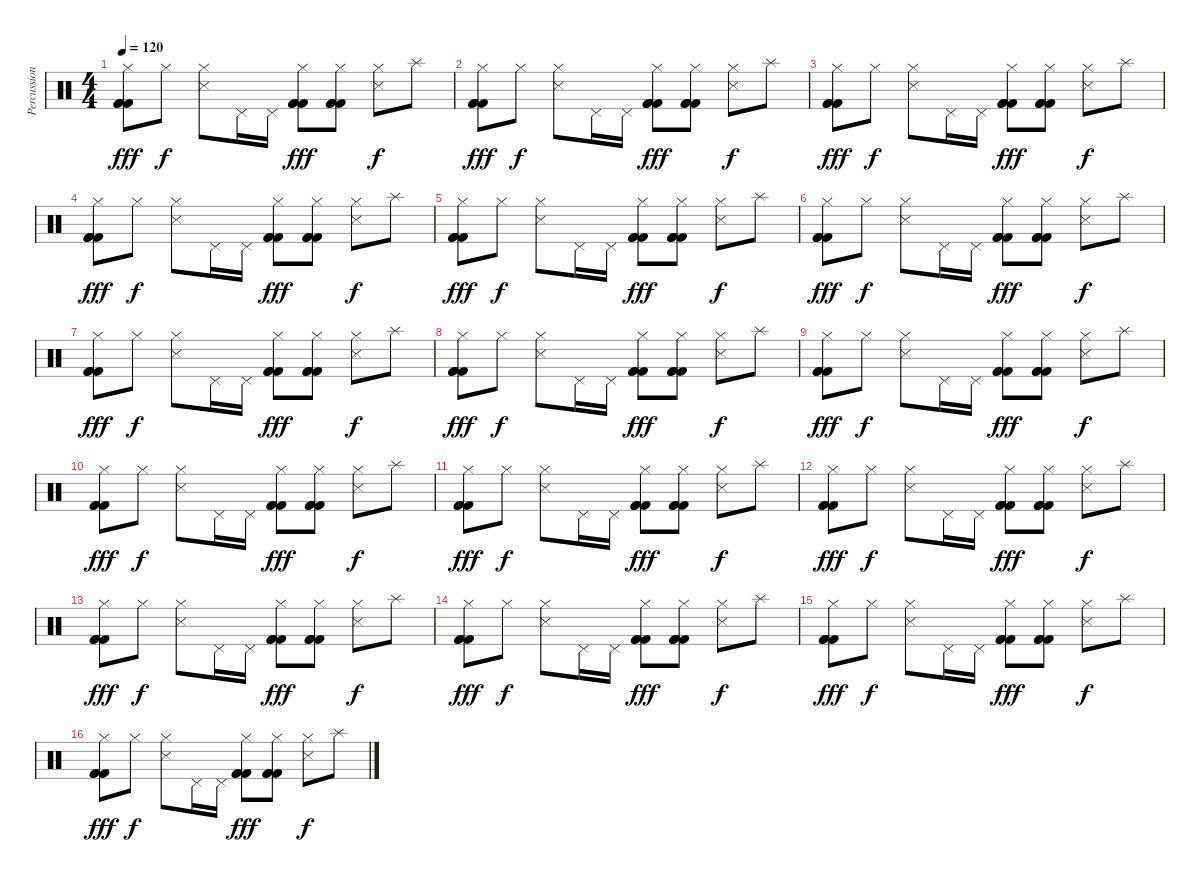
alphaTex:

\track ("Percussion" "Percussion") {instrument percussion}
\staff {score}
\articulation defaults
\ts (4 4)
\tempo 120
\clef neutral
\ks c
("Hi-Hat (closed)" "Kick (hit) 2" "Kick (hit) 2" "Kick (hit) 2").8{dy fff} "Hi-Hat (closed)".8{dy f} ("Hi-Hat (closed)" "Snare (side stick) 3").8 "Pedal Hi-Hat (hit)".16 "Pedal Hi-Hat (hit)".16 ("Hi-Hat (closed)" "Kick (hit) 2" "Kick (hit) 2" "Kick (hit) 2").8{dy fff} ("Hi-Hat (closed)" "Kick (hit) 2" "Kick (hit) 2" "Kick (hit) 2").8 ("Hi-Hat (closed)" "Snare (side stick) 3").8{dy f} "Splash (hit)".8 |
("Hi-Hat (closed)" "Kick (hit) 2" "Kick (hit) 2" "Kick (hit) 2").8{dy fff} "Hi-Hat (closed)".8{dy f} ("Hi-Hat (closed)" "Snare (side stick) 3").8 "Pedal Hi-Hat (hit)".16 "Pedal Hi-Hat (hit)".16 ("Hi-Hat (closed)" "Kick (hit) 2" "Kick (hit) 2" "Kick (hit) 2").8{dy fff} ("Hi-Hat (closed)" "Kick (hit) 2" "Kick (hit) 2" "Kick (hit) 2").8 ("Hi-Hat (closed)" "Snare (side stick) 3").8{dy f} "Splash (hit)".8 |
("Hi-Hat (closed)" "Kick (hit) 2" "Kick (hit) 2" "Kick (hit) 2").8{dy fff} "Hi-Hat (closed)".8{dy f} ("Hi-Hat (closed)" "Snare (side stick) 3").8 "Pedal Hi-Hat (hit)".16 "Pedal Hi-Hat (hit)".16 ("Hi-Hat (closed)" "Kick (hit) 2" "Kick (hit) 2" "Kick (hit) 2").8{dy fff} ("Hi-Hat (closed)" "Kick (hit) 2" "Kick (hit) 2" "Kick (hit) 2").8 ("Hi-Hat (closed)" "Snare (side stick) 3").8{dy f} "Splash (hit)".8 |
("Hi-Hat (closed)" "Kick (hit) 2" "Kick (hit) 2" "Kick (hit) 2").8{dy fff} "Hi-Hat (closed)".8{dy f} ("Hi-Hat (closed)" "Snare (side stick) 3").8 "Pedal Hi-Hat (hit)".16 "Pedal Hi-Hat (hit)".16 ("Hi-Hat (closed)" "Kick (hit) 2" "Kick (hit) 2" "Kick (hit) 2").8{dy fff} ("Hi-Hat (closed)" "Kick (hit) 2" "Kick (hit) 2" "Kick (hit) 2").8 ("Hi-Hat (closed)" "Snare (side stick) 3").8{dy f} "Splash (hit)".8 |
("Hi-Hat (closed)" "Kick (hit) 2" "Kick (hit) 2" "Kick (hit) 2").8{dy fff} "Hi-Hat (closed)".8{dy f} ("Hi-Hat (closed)" "Snare (side stick) 3").8 "Pedal Hi-Hat (hit)".16 "Pedal Hi-Hat (hit)".16 ("Hi-Hat (closed)" "Kick (hit) 2" "Kick (hit) 2" "Kick (hit) 2").8{dy fff} ("Hi-Hat (closed)" "Kick (hit) 2" "Kick (hit) 2" "Kick (hit) 2").8 ("Hi-Hat (closed)" "Snare (side stick) 3").8{dy f} "Splash (hit)".8 |
("Hi-Hat (closed)" "Kick (hit) 2" "Kick (hit) 2" "Kick (hit) 2").8{dy fff} "Hi-Hat (closed)".8{dy f} ("Hi-Hat (closed)" "Snare (side stick) 3").8 "Pedal Hi-Hat (hit)".16 "Pedal Hi-Hat (hit)".16 ("Hi-Hat (closed)" "Kick (hit) 2" "Kick (hit) 2" "Kick (hit) 2").8{dy fff} ("Hi-Hat (closed)" "Kick (hit) 2" "Kick (hit) 2" "Kick (hit) 2").8 ("Hi-Hat (closed)" "Snare (side stick) 3").8{dy f} "Splash (hit)".8 |
("Hi-Hat (closed)" "Kick (hit) 2" "Kick (hit) 2" "Kick (hit) 2").8{dy fff} "Hi-Hat (closed)".8{dy f} ("Hi-Hat (closed)" "Snare (side stick) 3").8 "Pedal Hi-Hat (hit)".16 "Pedal Hi-Hat (hit)".16 ("Hi-Hat (closed)" "Kick (hit) 2" "Kick (hit) 2" "Kick (hit) 2").8{dy fff} ("Hi-Hat (closed)" "Kick (hit) 2" "Kick (hit) 2" "Kick (hit) 2").8 ("Hi-Hat (closed)" "Snare (side stick) 3").8{dy f} "Splash (hit)".8 |
("Hi-Hat (closed)" "Kick (hit) 2" "Kick (hit) 2" "Kick (hit) 2").8{dy fff} "Hi-Hat (closed)".8{dy f} ("Hi-Hat (closed)" "Snare (side stick) 3").8 "Pedal Hi-Hat (hit)".16 "Pedal Hi-Hat (hit)".16 ("Hi-Hat (closed)" "Kick (hit) 2" "Kick (hit) 2" "Kick (hit) 2").8{dy fff} ("Hi-Hat (closed)" "Kick (hit) 2" "Kick (hit) 2" "Kick (hit) 2").8 ("Hi-Hat (closed)" "Snare (side stick) 3").8{dy f} "Splash (hit)".8 |
("Hi-Hat (closed)" "Kick (hit) 2" "Kick (hit) 2" "Kick (hit) 2").8{dy fff} "Hi-Hat (closed)".8{dy f} ("Hi-Hat (closed)" "Snare (side stick) 3").8 "Pedal Hi-Hat (hit)".16 "Pedal Hi-Hat (hit)".16 ("Hi-Hat (closed)" "Kick (hit) 2" "Kick (hit) 2" "Kick (hit) 2").8{dy fff} ("Hi-Hat (closed)" "Kick (hit) 2" "Kick (hit) 2" "Kick (hit) 2").8 ("Hi-Hat (closed)" "Snare (side stick) 3").8{dy f} "Splash (hit)".8 |
("Hi-Hat (closed)" "Kick (hit) 2" "Kick (hit) 2" "Kick (hit) 2").8{dy fff} "Hi-Hat (closed)".8{dy f} ("Hi-Hat (closed)" "Snare (side stick) 3").8 "Pedal Hi-Hat (hit)".16 "Pedal Hi-Hat (hit)".16 ("Hi-Hat (closed)" "Kick (hit) 2" "Kick (hit) 2" "Kick (hit) 2").8{dy fff} ("Hi-Hat (closed)" "Kick (hit) 2" "Kick (hit) 2" "Kick (hit) 2").8 ("Hi-Hat (closed)" "Snare (side stick) 3").8{dy f} "Splash (hit)".8 |
("Hi-Hat (closed)" "Kick (hit) 2" "Kick (hit) 2" "Kick (hit) 2").8{dy fff} "Hi-Hat (closed)".8{dy f} ("Hi-Hat (closed)" "Snare (side stick) 3").8 "Pedal Hi-Hat (hit)".16 "Pedal Hi-Hat (hit)".16 ("Hi-Hat (closed)" "Kick (hit) 2" "Kick (hit) 2" "Kick (hit) 2").8{dy fff} ("Hi-Hat (closed)" "Kick (hit) 2" "Kick (hit) 2" "Kick (hit) 2").8 ("Hi-Hat (closed)" "Snare (side stick) 3").8{dy f} "Splash (hit)".8 |
("Hi-Hat (closed)" "Kick (hit) 2" "Kick (hit) 2" "Kick (hit) 2").8{dy fff} "Hi-Hat (closed)".8{dy f} ("Hi-Hat (closed)" "Snare (side stick) 3").8 "Pedal Hi-Hat (hit)".16 "Pedal Hi-Hat (hit)".16 ("Hi-Hat (closed)" "Kick (hit) 2" "Kick (hit) 2" "Kick (hit) 2").8{dy fff} ("Hi-Hat (closed)" "Kick (hit) 2" "Kick (hit) 2" "Kick (hit) 2").8 ("Hi-Hat (closed)" "Snare (side stick) 3").8{dy f} "Splash (hit)".8 |
("Hi-Hat (closed)" "Kick (hit) 2" "Kick (hit) 2" "Kick (hit) 2").8{dy fff} "Hi-Hat (closed)".8{dy f} ("Hi-Hat (closed)" "Snare (side stick) 3").8 "Pedal Hi-Hat (hit)".16 "Pedal Hi-Hat (hit)".16 ("Hi-Hat (closed)" "Kick (hit) 2" "Kick (hit) 2" "Kick (hit) 2").8{dy fff} ("Hi-Hat (closed)" "Kick (hit) 2" "Kick (hit) 2" "Kick (hit) 2").8 ("Hi-Hat (closed)" "Snare (side stick) 3").8{dy f} "Splash (hit)".8 |
("Hi-Hat (closed)" "Kick (hit) 2" "Kick (hit) 2" "Kick (hit) 2").8{dy fff} "Hi-Hat (closed)".8{dy f} ("Hi-Hat (closed)" "Snare (side stick) 3").8 "Pedal Hi-Hat (hit)".16 "Pedal Hi-Hat (hit)".16 ("Hi-Hat (closed)" "Kick (hit) 2" "Kick (hit) 2" "Kick (hit) 2").8{dy fff} ("Hi-Hat (closed)" "Kick (hit) 2" "Kick (hit) 2" "Kick (hit) 2").8 ("Hi-Hat (closed)" "Snare (side stick) 3").8{dy f} "Splash (hit)".8 |
("Hi-Hat (closed)" "Kick (hit) 2" "Kick (hit) 2" "Kick (hit) 2").8{dy fff} "Hi-Hat (closed)".8{dy f} ("Hi-Hat (closed)" "Snare (side stick) 3").8 "Pedal Hi-Hat (hit)".16 "Pedal Hi-Hat (hit)".16 ("Hi-Hat (closed)" "Kick (hit) 2" "Kick (hit) 2" "Kick (hit) 2").8{dy fff} ("Hi-Hat (closed)" "Kick (hit) 2" "Kick (hit) 2" "Kick (hit) 2").8 ("Hi-Hat (closed)" "Snare (side stick) 3").8{dy f} "Splash (hit)".8 |
("Hi-Hat (closed)" "Kick (hit) 2" "Kick (hit) 2" "Kick (hit) 2").8{dy fff} "Hi-Hat (closed)".8{dy f} ("Hi-Hat (closed)" "Snare (side stick) 3").8 "Pedal Hi-Hat (hit)".16 "Pedal Hi-Hat (hit)".16 ("Hi-Hat (closed)" "Kick (hit) 2" "Kick (hit) 2" "Kick (hit) 2").8{dy fff} ("Hi-Hat (closed)" "Kick (hit) 2" "Kick (hit) 2" "Kick (hit) 2").8 ("Hi-Hat (closed)" "Snare (side stick) 3").8{dy f} "Splash (hit)".8
